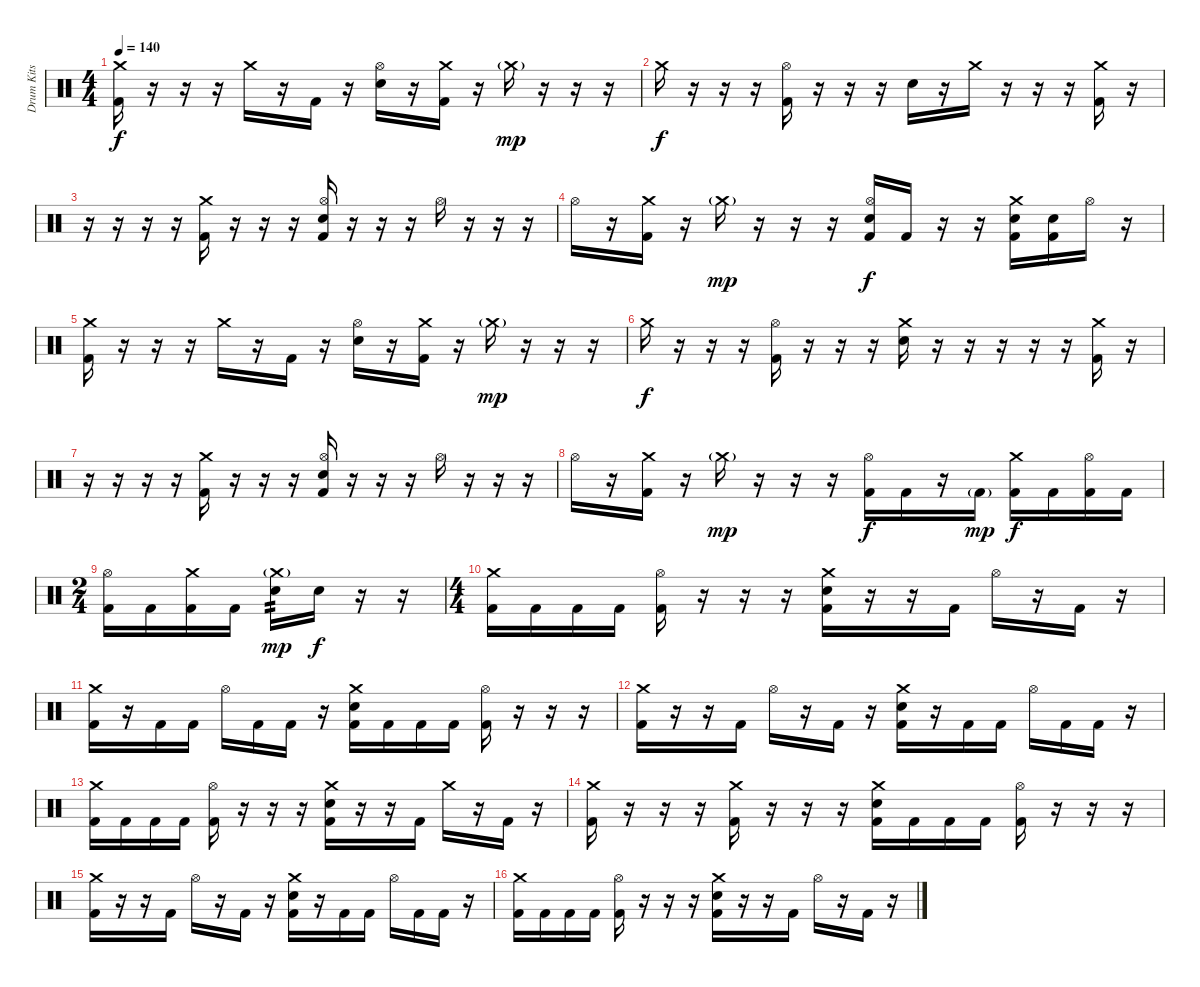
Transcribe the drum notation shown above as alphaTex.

\track ("Drum Kits" "Drum Kits") {instrument percussion}
\staff {score}
\articulation defaults
\ts (4 4)
\tempo 140
\clef neutral
\ks c
("Crash medium (hit)" "Kick (hit) 2").16{dy f} r.16 r.16 r.16 "Crash medium (hit)".16 r.16 "Kick (hit) 2".16 r.16 ("Hi-Hat (open)" "Electric Snare (hit)").16 r.16 ("Crash medium (hit)" "Kick (hit) 2").16 r.16 "Crash medium (hit)"{g}.16{dy mp} r.16 r.16 r.16 |
"Crash medium (hit)".16{dy f} r.16 r.16 r.16 ("Hi-Hat (open)" "Kick (hit) 2").16 r.16 r.16 r.16 "Electric Snare (hit)".16 r.16 "Crash medium (hit)".16 r.16 r.16 r.16 ("Crash medium (hit)" "Kick (hit) 2").16 r.16 |
r.16 r.16 r.16 r.16 ("Crash medium (hit)" "Kick (hit) 2").16 r.16 r.16 r.16 ("Hi-Hat (open)" "Electric Snare (hit)" "Kick (hit) 2").16 r.16 r.16 r.16 "Hi-Hat (open)".16 r.16 r.16 r.16 |
"Hi-Hat (open)".16 r.16 ("Crash medium (hit)" "Kick (hit) 2").16 r.16 "Crash medium (hit)"{g}.16{dy mp} r.16 r.16 r.16 ("Hi-Hat (open)" "Electric Snare (hit)" "Kick (hit) 2").16{dy f} "Kick (hit) 2".16 r.16 r.16 ("Crash medium (hit)" "Electric Snare (hit)" "Kick (hit) 2").16 ("Electric Snare (hit)" "Kick (hit) 2").16 "Hi-Hat (open)".16 r.16 |
("Crash medium (hit)" "Kick (hit) 2").16 r.16 r.16 r.16 "Crash medium (hit)".16 r.16 "Kick (hit) 2".16 r.16 ("Hi-Hat (open)" "Electric Snare (hit)").16 r.16 ("Crash medium (hit)" "Kick (hit) 2").16 r.16 "Crash medium (hit)"{g}.16{dy mp} r.16 r.16 r.16 |
"Crash medium (hit)".16{dy f} r.16 r.16 r.16 ("Hi-Hat (open)" "Kick (hit) 2").16 r.16 r.16 r.16 ("Crash medium (hit)" "Electric Snare (hit)").16 r.16 r.16 r.16 r.16 r.16 ("Crash medium (hit)" "Kick (hit) 2").16 r.16 |
r.16 r.16 r.16 r.16 ("Crash medium (hit)" "Kick (hit) 2").16 r.16 r.16 r.16 ("Hi-Hat (open)" "Electric Snare (hit)" "Kick (hit) 2").16 r.16 r.16 r.16 "Hi-Hat (open)".16 r.16 r.16 r.16 |
"Hi-Hat (open)".16 r.16 ("Crash medium (hit)" "Kick (hit) 2").16 r.16 "Crash medium (hit)"{g}.16{dy mp} r.16 r.16 r.16 ("Hi-Hat (open)" "Kick (hit) 2").16{dy f} "Kick (hit) 2".16 r.16 "Kick (hit) 2"{g}.16{dy mp} ("Crash medium (hit)" "Kick (hit) 2").16{dy f} "Kick (hit) 2".16 ("Hi-Hat (open)" "Kick (hit) 2").16 "Kick (hit) 2".16 |
\ts (2 4)
("Hi-Hat (open)" "Kick (hit) 2").16 "Kick (hit) 2".16 ("Crash medium (hit)" "Kick (hit) 2").16 "Kick (hit) 2".16 ("Crash medium (hit)"{g} "Electric Snare (hit)").16{tp 2 dy mp} "Electric Snare (hit)".16{dy f} r.16 r.16 |
\ts (4 4)
("Crash medium (hit)" "Kick (hit) 2").16 "Kick (hit) 2".16 "Kick (hit) 2".16 "Kick (hit) 2".16 ("Hi-Hat (open)" "Kick (hit) 2").16 r.16 r.16 r.16 ("Crash medium (hit)" "Electric Snare (hit)" "Kick (hit) 2").16 r.16 r.16 "Kick (hit) 2".16 "Hi-Hat (open)".16 r.16 "Kick (hit) 2".16 r.16 |
("Crash medium (hit)" "Kick (hit) 2").16 r.16 "Kick (hit) 2".16 "Kick (hit) 2".16 "Hi-Hat (open)".16 "Kick (hit) 2".16 "Kick (hit) 2".16 r.16 ("Crash medium (hit)" "Electric Snare (hit)" "Kick (hit) 2").16 "Kick (hit) 2".16 "Kick (hit) 2".16 "Kick (hit) 2".16 ("Hi-Hat (open)" "Kick (hit) 2").16 r.16 r.16 r.16 |
("Crash medium (hit)" "Kick (hit) 2").16 r.16 r.16 "Kick (hit) 2".16 "Hi-Hat (open)".16 r.16 "Kick (hit) 2".16 r.16 ("Crash medium (hit)" "Electric Snare (hit)" "Kick (hit) 2").16 r.16 "Kick (hit) 2".16 "Kick (hit) 2".16 "Hi-Hat (open)".16 "Kick (hit) 2".16 "Kick (hit) 2".16 r.16 |
("Crash medium (hit)" "Kick (hit) 2").16 "Kick (hit) 2".16 "Kick (hit) 2".16 "Kick (hit) 2".16 ("Hi-Hat (open)" "Kick (hit) 2").16 r.16 r.16 r.16 ("Crash medium (hit)" "Electric Snare (hit)" "Kick (hit) 2").16 r.16 r.16 "Kick (hit) 2".16 "Crash medium (hit)".16 r.16 "Kick (hit) 2".16 r.16 |
("Crash medium (hit)" "Kick (hit) 2").16 r.16 r.16 r.16 ("Crash medium (hit)" "Kick (hit) 2").16 r.16 r.16 r.16 ("Crash medium (hit)" "Electric Snare (hit)" "Kick (hit) 2").16 "Kick (hit) 2".16 "Kick (hit) 2".16 "Kick (hit) 2".16 ("Hi-Hat (open)" "Kick (hit) 2").16 r.16 r.16 r.16 |
("Crash medium (hit)" "Kick (hit) 2").16 r.16 r.16 "Kick (hit) 2".16 "Hi-Hat (open)".16 r.16 "Kick (hit) 2".16 r.16 ("Crash medium (hit)" "Electric Snare (hit)" "Kick (hit) 2").16 r.16 "Kick (hit) 2".16 "Kick (hit) 2".16 "Hi-Hat (open)".16 "Kick (hit) 2".16 "Kick (hit) 2".16 r.16 |
("Crash medium (hit)" "Kick (hit) 2").16 "Kick (hit) 2".16 "Kick (hit) 2".16 "Kick (hit) 2".16 ("Hi-Hat (open)" "Kick (hit) 2").16 r.16 r.16 r.16 ("Crash medium (hit)" "Electric Snare (hit)" "Kick (hit) 2").16 r.16 r.16 "Kick (hit) 2".16 "Hi-Hat (open)".16 r.16 "Kick (hit) 2".16 r.16
